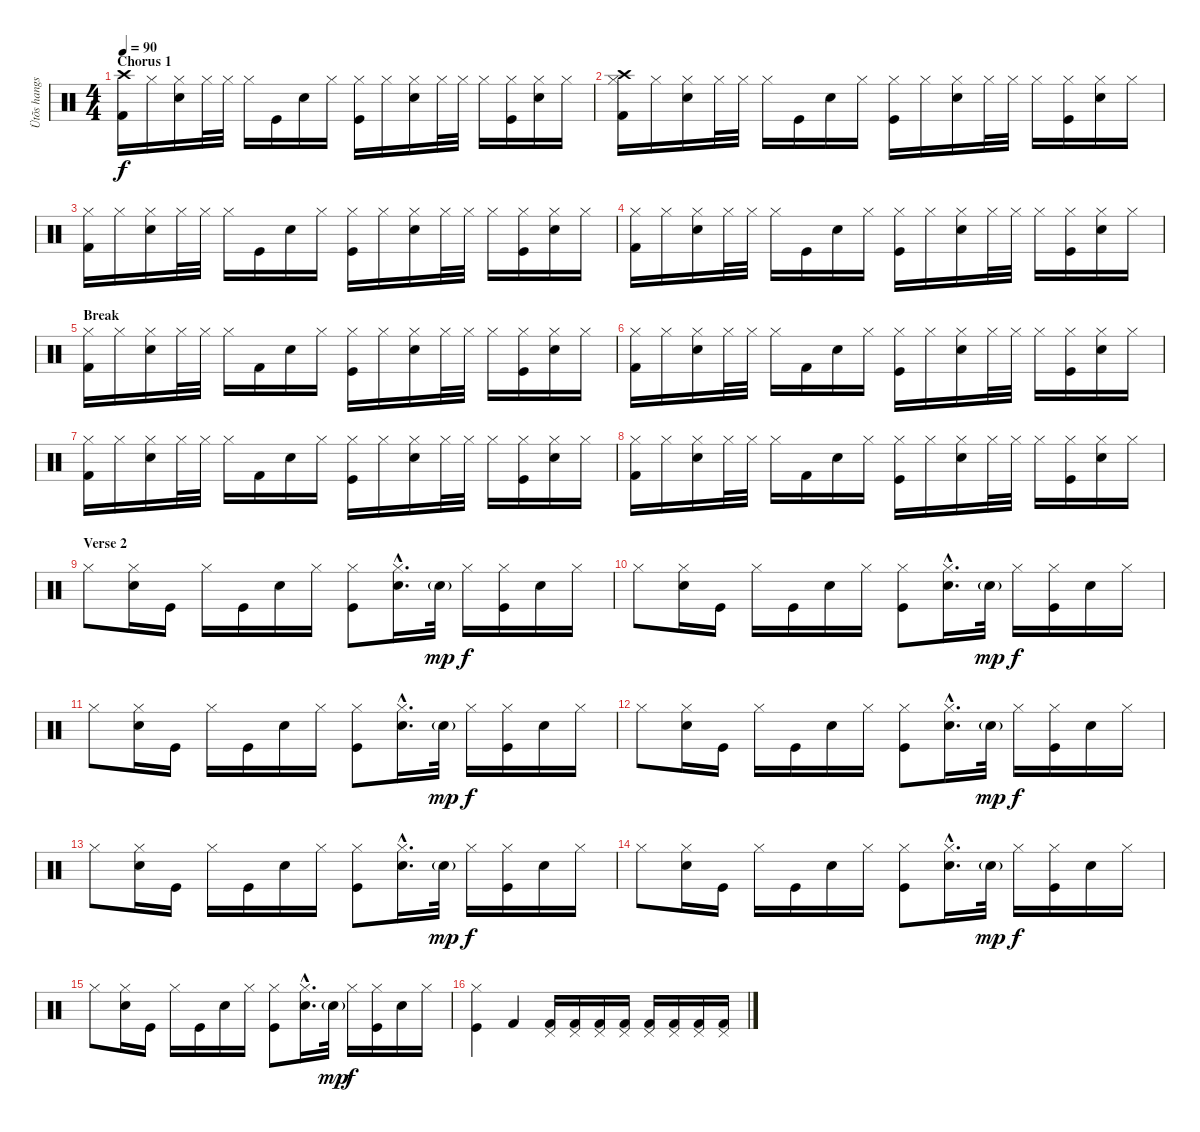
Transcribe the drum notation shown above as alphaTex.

\track ("Ütõs hangszer" "Ütõs hangs") {instrument percussion}
\staff {score}
\articulation defaults
\ts (4 4)
\section ("" "Chorus 1")
\tempo 90
\clef neutral
\ks c
("Crash high (hit)" "Kick (hit) 2").16{dy f} "Hi-Hat (closed)".16 ("Hi-Hat (closed)" "Electric Snare (hit)").16 "Hi-Hat (closed)".32 "Hi-Hat (closed)".32 "Hi-Hat (closed)".16 "Kick (hit)".16 "Electric Snare (hit)".16 "Hi-Hat (closed)".16 ("Hi-Hat (closed)" "Kick (hit)").16 "Hi-Hat (closed)".16 ("Hi-Hat (closed)" "Electric Snare (hit)").16 "Hi-Hat (closed)".32 "Hi-Hat (closed)".32 "Hi-Hat (closed)".16 ("Hi-Hat (closed)" "Kick (hit)").16 ("Hi-Hat (closed)" "Electric Snare (hit)").16 "Hi-Hat (closed)".16 |
("Crash high (hit)" "Hi-Hat (closed)" "Kick (hit) 2").16 "Hi-Hat (closed)".16 ("Hi-Hat (closed)" "Electric Snare (hit)").16 "Hi-Hat (closed)".32 "Hi-Hat (closed)".32 "Hi-Hat (closed)".16 "Kick (hit)".16 "Electric Snare (hit)".16 "Hi-Hat (closed)".16 ("Hi-Hat (closed)" "Kick (hit)").16 "Hi-Hat (closed)".16 ("Hi-Hat (closed)" "Electric Snare (hit)").16 "Hi-Hat (closed)".32 "Hi-Hat (closed)".32 "Hi-Hat (closed)".16 ("Hi-Hat (closed)" "Kick (hit)").16 ("Hi-Hat (closed)" "Electric Snare (hit)").16 "Hi-Hat (closed)".16 |
("Hi-Hat (closed)" "Kick (hit) 2").16 "Hi-Hat (closed)".16 ("Hi-Hat (closed)" "Electric Snare (hit)").16 "Hi-Hat (closed)".32 "Hi-Hat (closed)".32 "Hi-Hat (closed)".16 "Kick (hit)".16 "Electric Snare (hit)".16 "Hi-Hat (closed)".16 ("Hi-Hat (closed)" "Kick (hit)").16 "Hi-Hat (closed)".16 ("Hi-Hat (closed)" "Electric Snare (hit)").16 "Hi-Hat (closed)".32 "Hi-Hat (closed)".32 "Hi-Hat (closed)".16 ("Hi-Hat (closed)" "Kick (hit)").16 ("Hi-Hat (closed)" "Electric Snare (hit)").16 "Hi-Hat (closed)".16 |
("Hi-Hat (closed)" "Kick (hit) 2").16 "Hi-Hat (closed)".16 ("Hi-Hat (closed)" "Electric Snare (hit)").16 "Hi-Hat (closed)".32 "Hi-Hat (closed)".32 "Hi-Hat (closed)".16 "Kick (hit)".16 "Electric Snare (hit)".16 "Hi-Hat (closed)".16 ("Hi-Hat (closed)" "Kick (hit)").16 "Hi-Hat (closed)".16 ("Hi-Hat (closed)" "Electric Snare (hit)").16 "Hi-Hat (closed)".32 "Hi-Hat (closed)".32 "Hi-Hat (closed)".16 ("Hi-Hat (closed)" "Kick (hit)").16 ("Hi-Hat (closed)" "Electric Snare (hit)").16 "Hi-Hat (closed)".16 |
\section ("" "Break")
("Hi-Hat (closed)" "Kick (hit) 2").16 "Hi-Hat (closed)".16 ("Hi-Hat (closed)" "Electric Snare (hit)").16 "Hi-Hat (closed)".32 "Hi-Hat (closed)".32 "Hi-Hat (closed)".16 "Kick (hit) 2".16 "Electric Snare (hit)".16 "Hi-Hat (closed)".16 ("Hi-Hat (closed)" "Kick (hit)").16 "Hi-Hat (closed)".16 ("Hi-Hat (closed)" "Electric Snare (hit)").16 "Hi-Hat (closed)".32 "Hi-Hat (closed)".32 "Hi-Hat (closed)".16 ("Hi-Hat (closed)" "Kick (hit)").16 ("Hi-Hat (closed)" "Electric Snare (hit)").16 "Hi-Hat (closed)".16 |
("Hi-Hat (closed)" "Kick (hit) 2").16 "Hi-Hat (closed)".16 ("Hi-Hat (closed)" "Electric Snare (hit)").16 "Hi-Hat (closed)".32 "Hi-Hat (closed)".32 "Hi-Hat (closed)".16 "Kick (hit) 2".16 "Electric Snare (hit)".16 "Hi-Hat (closed)".16 ("Hi-Hat (closed)" "Kick (hit)").16 "Hi-Hat (closed)".16 ("Hi-Hat (closed)" "Electric Snare (hit)").16 "Hi-Hat (closed)".32 "Hi-Hat (closed)".32 "Hi-Hat (closed)".16 ("Hi-Hat (closed)" "Kick (hit)").16 ("Hi-Hat (closed)" "Electric Snare (hit)").16 "Hi-Hat (closed)".16 |
("Hi-Hat (closed)" "Kick (hit) 2").16 "Hi-Hat (closed)".16 ("Hi-Hat (closed)" "Electric Snare (hit)").16 "Hi-Hat (closed)".32 "Hi-Hat (closed)".32 "Hi-Hat (closed)".16 "Kick (hit) 2".16 "Electric Snare (hit)".16 "Hi-Hat (closed)".16 ("Hi-Hat (closed)" "Kick (hit)").16 "Hi-Hat (closed)".16 ("Hi-Hat (closed)" "Electric Snare (hit)").16 "Hi-Hat (closed)".32 "Hi-Hat (closed)".32 "Hi-Hat (closed)".16 ("Hi-Hat (closed)" "Kick (hit)").16 ("Hi-Hat (closed)" "Electric Snare (hit)").16 "Hi-Hat (closed)".16 |
("Hi-Hat (closed)" "Kick (hit) 2").16 "Hi-Hat (closed)".16 ("Hi-Hat (closed)" "Electric Snare (hit)").16 "Hi-Hat (closed)".32 "Hi-Hat (closed)".32 "Hi-Hat (closed)".16 "Kick (hit) 2".16 "Electric Snare (hit)".16 "Hi-Hat (closed)".16 ("Hi-Hat (closed)" "Kick (hit)").16 "Hi-Hat (closed)".16 ("Hi-Hat (closed)" "Electric Snare (hit)").16 "Hi-Hat (closed)".32 "Hi-Hat (closed)".32 "Hi-Hat (closed)".16 ("Hi-Hat (closed)" "Kick (hit)").16 ("Hi-Hat (closed)" "Electric Snare (hit)").16 "Hi-Hat (closed)".16 |
\section ("" "Verse 2")
"Hi-Hat (closed)".8 ("Hi-Hat (closed)" "Electric Snare (hit)").16 "Kick (hit)".16 "Hi-Hat (closed)".16 "Kick (hit)".16 "Electric Snare (hit)".16 "Hi-Hat (closed)".16 ("Hi-Hat (closed)" "Kick (hit)").8 ("Hi-Hat (closed)"{hac} "Electric Snare (hit)"{hac}).16{d} "Electric Snare (hit)"{g}.32{dy mp} "Hi-Hat (closed)".16{dy f} ("Hi-Hat (closed)" "Kick (hit)").16 "Electric Snare (hit)".16 "Hi-Hat (closed)".16 |
"Hi-Hat (closed)".8 ("Hi-Hat (closed)" "Electric Snare (hit)").16 "Kick (hit)".16 "Hi-Hat (closed)".16 "Kick (hit)".16 "Electric Snare (hit)".16 "Hi-Hat (closed)".16 ("Hi-Hat (closed)" "Kick (hit)").8 ("Hi-Hat (closed)"{hac} "Electric Snare (hit)"{hac}).16{d} "Electric Snare (hit)"{g}.32{dy mp} "Hi-Hat (closed)".16{dy f} ("Hi-Hat (closed)" "Kick (hit)").16 "Electric Snare (hit)".16 "Hi-Hat (closed)".16 |
"Hi-Hat (closed)".8 ("Hi-Hat (closed)" "Electric Snare (hit)").16 "Kick (hit)".16 "Hi-Hat (closed)".16 "Kick (hit)".16 "Electric Snare (hit)".16 "Hi-Hat (closed)".16 ("Hi-Hat (closed)" "Kick (hit)").8 ("Hi-Hat (closed)"{hac} "Electric Snare (hit)"{hac}).16{d} "Electric Snare (hit)"{g}.32{dy mp} "Hi-Hat (closed)".16{dy f} ("Hi-Hat (closed)" "Kick (hit)").16 "Electric Snare (hit)".16 "Hi-Hat (closed)".16 |
"Hi-Hat (closed)".8 ("Hi-Hat (closed)" "Electric Snare (hit)").16 "Kick (hit)".16 "Hi-Hat (closed)".16 "Kick (hit)".16 "Electric Snare (hit)".16 "Hi-Hat (closed)".16 ("Hi-Hat (closed)" "Kick (hit)").8 ("Hi-Hat (closed)"{hac} "Electric Snare (hit)"{hac}).16{d} "Electric Snare (hit)"{g}.32{dy mp} "Hi-Hat (closed)".16{dy f} ("Hi-Hat (closed)" "Kick (hit)").16 "Electric Snare (hit)".16 "Hi-Hat (closed)".16 |
"Hi-Hat (closed)".8 ("Hi-Hat (closed)" "Electric Snare (hit)").16 "Kick (hit)".16 "Hi-Hat (closed)".16 "Kick (hit)".16 "Electric Snare (hit)".16 "Hi-Hat (closed)".16 ("Hi-Hat (closed)" "Kick (hit)").8 ("Hi-Hat (closed)"{hac} "Electric Snare (hit)"{hac}).16{d} "Electric Snare (hit)"{g}.32{dy mp} "Hi-Hat (closed)".16{dy f} ("Hi-Hat (closed)" "Kick (hit)").16 "Electric Snare (hit)".16 "Hi-Hat (closed)".16 |
"Hi-Hat (closed)".8 ("Hi-Hat (closed)" "Electric Snare (hit)").16 "Kick (hit)".16 "Hi-Hat (closed)".16 "Kick (hit)".16 "Electric Snare (hit)".16 "Hi-Hat (closed)".16 ("Hi-Hat (closed)" "Kick (hit)").8 ("Hi-Hat (closed)"{hac} "Electric Snare (hit)"{hac}).16{d} "Electric Snare (hit)"{g}.32{dy mp} "Hi-Hat (closed)".16{dy f} ("Hi-Hat (closed)" "Kick (hit)").16 "Electric Snare (hit)".16 "Hi-Hat (closed)".16 |
"Hi-Hat (closed)".8 ("Hi-Hat (closed)" "Electric Snare (hit)").16 "Kick (hit)".16 "Hi-Hat (closed)".16 "Kick (hit)".16 "Electric Snare (hit)".16 "Hi-Hat (closed)".16 ("Hi-Hat (closed)" "Kick (hit)").8 ("Hi-Hat (closed)"{hac} "Electric Snare (hit)"{hac}).16{d} "Electric Snare (hit)"{g}.32{dy mp} "Hi-Hat (closed)".16{dy f} ("Hi-Hat (closed)" "Kick (hit)").16 "Electric Snare (hit)".16 "Hi-Hat (closed)".16 |
("Hi-Hat (closed)" "Kick (hit)").4 "Kick (hit) 2".4 ("Pedal Hi-Hat (hit)" "Kick (hit) 2").16 ("Pedal Hi-Hat (hit)" "Kick (hit) 2").16 ("Pedal Hi-Hat (hit)" "Kick (hit) 2").16 ("Pedal Hi-Hat (hit)" "Kick (hit) 2").16 ("Pedal Hi-Hat (hit)" "Kick (hit) 2").16 ("Pedal Hi-Hat (hit)" "Kick (hit) 2").16 ("Pedal Hi-Hat (hit)" "Kick (hit) 2").16 ("Pedal Hi-Hat (hit)" "Kick (hit) 2").16
